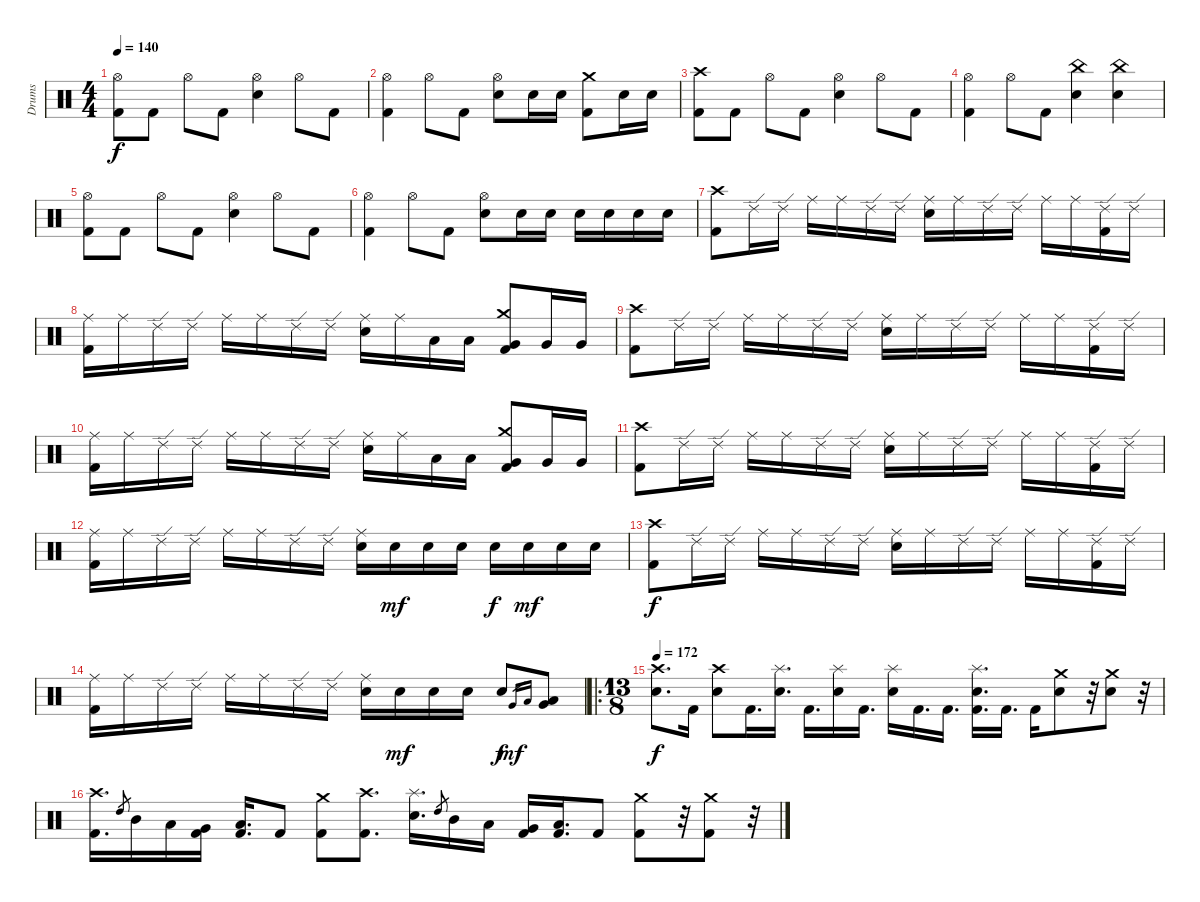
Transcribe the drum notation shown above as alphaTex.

\track ("Drums" "Drums") {instrument percussion}
\staff {score}
\articulation defaults
\ts (4 4)
\tempo 140
\clef neutral
\ks c
("Hi-Hat (open)" "Kick (hit) 2").8{dy f} "Kick (hit) 2".8 "Hi-Hat (open)".8 "Kick (hit) 2".8 ("Hi-Hat (open)" "Electric Snare (hit)").4 "Hi-Hat (open)".8 "Kick (hit) 2".8 |
("Hi-Hat (open)" "Kick (hit) 2").4 "Hi-Hat (open)".8 "Kick (hit) 2".8 ("Hi-Hat (open)" "Electric Snare (hit)").8 "Electric Snare (hit)".16 "Electric Snare (hit)".16 ("Crash medium (hit)" "Kick (hit) 2").8 "Electric Snare (hit)".16 "Electric Snare (hit)".16 |
("Crash high (hit)" "Kick (hit) 2").8 "Kick (hit) 2".8 "Hi-Hat (open)".8 "Kick (hit) 2".8 ("Hi-Hat (open)" "Electric Snare (hit)").4 "Hi-Hat (open)".8 "Kick (hit) 2".8 |
("Hi-Hat (open)" "Kick (hit) 2").4 "Hi-Hat (open)".8 "Kick (hit) 2".8 ("China (hit)" "Electric Snare (hit)").4 ("China (hit)" "Electric Snare (hit)").4 |
("Hi-Hat (open)" "Kick (hit) 2").8 "Kick (hit) 2".8 "Hi-Hat (open)".8 "Kick (hit) 2".8 ("Hi-Hat (open)" "Electric Snare (hit)").4 "Hi-Hat (open)".8 "Kick (hit) 2".8 |
("Hi-Hat (open)" "Kick (hit) 2").4 "Hi-Hat (open)".8 "Kick (hit) 2".8 ("Hi-Hat (open)" "Electric Snare (hit)").8 "Electric Snare (hit)".16 "Electric Snare (hit)".16 "Electric Snare (hit)".16 "Electric Snare (hit)".16 "Electric Snare (hit)".16 "Electric Snare (hit)".16 |
("Crash high (hit)" "Kick (hit) 2").8 "Ride (edge) 2".16 "Ride (edge) 2".16 "Ride (middle)".16 "Ride (middle)".16 "Ride (edge) 2".16 "Ride (edge) 2".16 ("Ride (middle)" "Electric Snare (hit)").16 "Ride (middle)".16 "Ride (edge) 2".16 "Ride (edge) 2".16 "Ride (middle)".16 "Ride (middle)".16 ("Ride (edge) 2" "Kick (hit) 2").16 "Ride (edge) 2".16 |
("Ride (middle)" "Kick (hit) 2").16 "Ride (middle)".16 "Ride (edge) 2".16 "Ride (edge) 2".16 "Ride (middle)".16 "Ride (middle)".16 "Ride (edge) 2".16 "Ride (edge) 2".16 ("Ride (middle)" "Electric Snare (hit)").16 "Ride (middle)".16 "Low Tom (hit)".16 "Low Tom (hit)".16 ("Crash medium (hit)" "Very Low Tom (hit)" "Kick (hit) 2").8 "Very Low Tom (hit)".16 "Very Low Tom (hit)".16 |
("Crash high (hit)" "Kick (hit) 2").8 "Ride (edge) 2".16 "Ride (edge) 2".16 "Ride (middle)".16 "Ride (middle)".16 "Ride (edge) 2".16 "Ride (edge) 2".16 ("Ride (middle)" "Electric Snare (hit)").16 "Ride (middle)".16 "Ride (edge) 2".16 "Ride (edge) 2".16 "Ride (middle)".16 "Ride (middle)".16 ("Ride (edge) 2" "Kick (hit) 2").16 "Ride (edge) 2".16 |
("Ride (middle)" "Kick (hit) 2").16 "Ride (middle)".16 "Ride (edge) 2".16 "Ride (edge) 2".16 "Ride (middle)".16 "Ride (middle)".16 "Ride (edge) 2".16 "Ride (edge) 2".16 ("Ride (middle)" "Electric Snare (hit)").16 "Ride (middle)".16 "Low Tom (hit)".16 "Low Tom (hit)".16 ("Crash medium (hit)" "Very Low Tom (hit)" "Kick (hit) 2").8 "Very Low Tom (hit)".16 "Very Low Tom (hit)".16 |
("Crash high (hit)" "Kick (hit) 2").8 "Ride (edge) 2".16 "Ride (edge) 2".16 "Ride (middle)".16 "Ride (middle)".16 "Ride (edge) 2".16 "Ride (edge) 2".16 ("Ride (middle)" "Electric Snare (hit)").16 "Ride (middle)".16 "Ride (edge) 2".16 "Ride (edge) 2".16 "Ride (middle)".16 "Ride (middle)".16 ("Ride (edge) 2" "Kick (hit) 2").16 "Ride (edge) 2".16 |
("Ride (middle)" "Kick (hit) 2").16 "Ride (middle)".16 "Ride (edge) 2".16 "Ride (edge) 2".16 "Ride (middle)".16 "Ride (middle)".16 "Ride (edge) 2".16 "Ride (edge) 2".16 ("Ride (middle)" "Electric Snare (hit)").16 "Electric Snare (hit)".16{dy mf} "Electric Snare (hit)".16 "Electric Snare (hit)".16 "Electric Snare (hit)".16{dy f} "Electric Snare (hit)".16{dy mf} "Electric Snare (hit)".16 "Electric Snare (hit)".16 |
("Crash high (hit)" "Kick (hit) 2").8{dy f} "Ride (edge) 2".16 "Ride (edge) 2".16 "Ride (middle)".16 "Ride (middle)".16 "Ride (edge) 2".16 "Ride (edge) 2".16 ("Ride (middle)" "Electric Snare (hit)").16 "Ride (middle)".16 "Ride (edge) 2".16 "Ride (edge) 2".16 "Ride (middle)".16 "Ride (middle)".16 ("Ride (edge) 2" "Kick (hit) 2").16 "Ride (edge) 2".16 |
("Ride (middle)" "Kick (hit) 2").16 "Ride (middle)".16 "Ride (edge) 2".16 "Ride (edge) 2".16 "Ride (middle)".16 "Ride (middle)".16 "Ride (edge) 2".16 "Ride (edge) 2".16 ("Ride (middle)" "Electric Snare (hit)").16 "Electric Snare (hit)".16{dy mf} "Electric Snare (hit)".16 "Electric Snare (hit)".16 "Electric Snare (hit)".8{dy f} "Very Low Tom (hit)".16{gr dy mf} "Low Tom (hit)".16{gr} ("Very Low Tom (hit)" "Low Tom (hit)").8 |
\ro
\ts (13 8)
\tempo 172
("Crash high (hit)" "Electric Snare (hit)").8{d dy f} "Kick (hit) 2".16 ("Crash high (hit)" "Electric Snare (hit)").8 "Kick (hit) 2".16{d} ("Splash (hit)" "Electric Snare (hit)").16{d} "Kick (hit) 2".16{d} ("Splash (hit)" "Electric Snare (hit)").16 "Kick (hit) 2".16{d} ("Splash (hit)" "Electric Snare (hit)").16 "Kick (hit) 2".16{d} "Kick (hit) 2".16{d} ("Splash (hit)" "Electric Snare (hit)" "Kick (hit) 2").16{d} "Kick (hit) 2".16{d} "Kick (hit) 2".16 ("Crash medium (hit)" "Electric Snare (hit)").8 r.32 ("Crash medium (hit)" "Electric Snare (hit)").8 r.32 |
("Crash high (hit)" "Kick (hit) 2").16{d} "High Tom (hit)".8{gr} "Mid Tom (hit)".16 "Low Tom (hit)".16 ("Very Low Tom (hit)" "Kick (hit) 2").16 ("Low Floor Tom (hit)" "Kick (hit) 2").16{d} "Kick (hit) 2".8 ("Crash medium (hit)" "Kick (hit) 2").8 ("Crash high (hit)" "Kick (hit) 2").8{d} ("Splash (hit)" "Electric Snare (hit)").16{d} "High Tom (hit)".8{gr} "Mid Tom (hit)".16 "Low Tom (hit)".16 ("Very Low Tom (hit)" "Kick (hit) 2").16 ("Low Floor Tom (hit)" "Kick (hit) 2").16{d} "Kick (hit) 2".8 ("Crash medium (hit)" "Kick (hit) 2").8 r.32 ("Crash medium (hit)" "Kick (hit) 2").8 r.32
